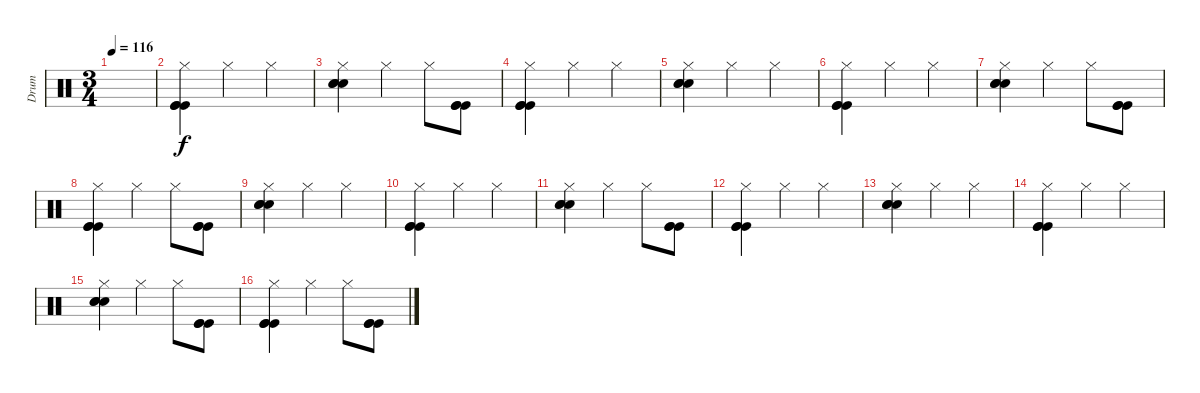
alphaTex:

\track ("Drum" "Drum") {instrument percussion}
\staff {score}
\articulation defaults
\ts (3 4)
\tempo 116
\clef neutral
\ks c
|
("Hi-Hat (closed)" "Kick (hit)" "Kick (hit)" "Kick (hit)").4 "Hi-Hat (closed)".4 "Hi-Hat (closed)".4 |
("Hi-Hat (closed)" "Electric Snare (hit)" "Electric Snare (hit)" "Electric Snare (hit)").4 "Hi-Hat (closed)".4 "Hi-Hat (closed)".8 ("Kick (hit)" "Kick (hit)" "Kick (hit)").8 |
("Hi-Hat (closed)" "Kick (hit)" "Kick (hit)" "Kick (hit)").4 "Hi-Hat (closed)".4 "Hi-Hat (closed)".4 |
("Hi-Hat (closed)" "Electric Snare (hit)" "Electric Snare (hit)" "Electric Snare (hit)").4 "Hi-Hat (closed)".4 "Hi-Hat (closed)".4 |
("Hi-Hat (closed)" "Kick (hit)" "Kick (hit)" "Kick (hit)").4 "Hi-Hat (closed)".4 "Hi-Hat (closed)".4 |
("Hi-Hat (closed)" "Electric Snare (hit)" "Electric Snare (hit)" "Electric Snare (hit)").4 "Hi-Hat (closed)".4 "Hi-Hat (closed)".8 ("Kick (hit)" "Kick (hit)" "Kick (hit)").8 |
("Hi-Hat (closed)" "Kick (hit)" "Kick (hit)" "Kick (hit)").4 "Hi-Hat (closed)".4 "Hi-Hat (closed)".8 ("Kick (hit)" "Kick (hit)" "Kick (hit)").8 |
("Hi-Hat (closed)" "Electric Snare (hit)" "Electric Snare (hit)" "Electric Snare (hit)").4 "Hi-Hat (closed)".4 "Hi-Hat (closed)".4 |
("Hi-Hat (closed)" "Kick (hit)" "Kick (hit)" "Kick (hit)").4 "Hi-Hat (closed)".4 "Hi-Hat (closed)".4 |
("Hi-Hat (closed)" "Electric Snare (hit)" "Electric Snare (hit)" "Electric Snare (hit)").4 "Hi-Hat (closed)".4 "Hi-Hat (closed)".8 ("Kick (hit)" "Kick (hit)" "Kick (hit)").8 |
("Hi-Hat (closed)" "Kick (hit)" "Kick (hit)" "Kick (hit)").4 "Hi-Hat (closed)".4 "Hi-Hat (closed)".4 |
("Hi-Hat (closed)" "Electric Snare (hit)" "Electric Snare (hit)" "Electric Snare (hit)").4 "Hi-Hat (closed)".4 "Hi-Hat (closed)".4 |
("Hi-Hat (closed)" "Kick (hit)" "Kick (hit)" "Kick (hit)").4 "Hi-Hat (closed)".4 "Hi-Hat (closed)".4 |
("Hi-Hat (closed)" "Electric Snare (hit)" "Electric Snare (hit)" "Electric Snare (hit)").4 "Hi-Hat (closed)".4 "Hi-Hat (closed)".8 ("Kick (hit)" "Kick (hit)" "Kick (hit)").8 |
("Hi-Hat (closed)" "Kick (hit)" "Kick (hit)" "Kick (hit)").4 "Hi-Hat (closed)".4 "Hi-Hat (closed)".8 ("Kick (hit)" "Kick (hit)" "Kick (hit)").8
